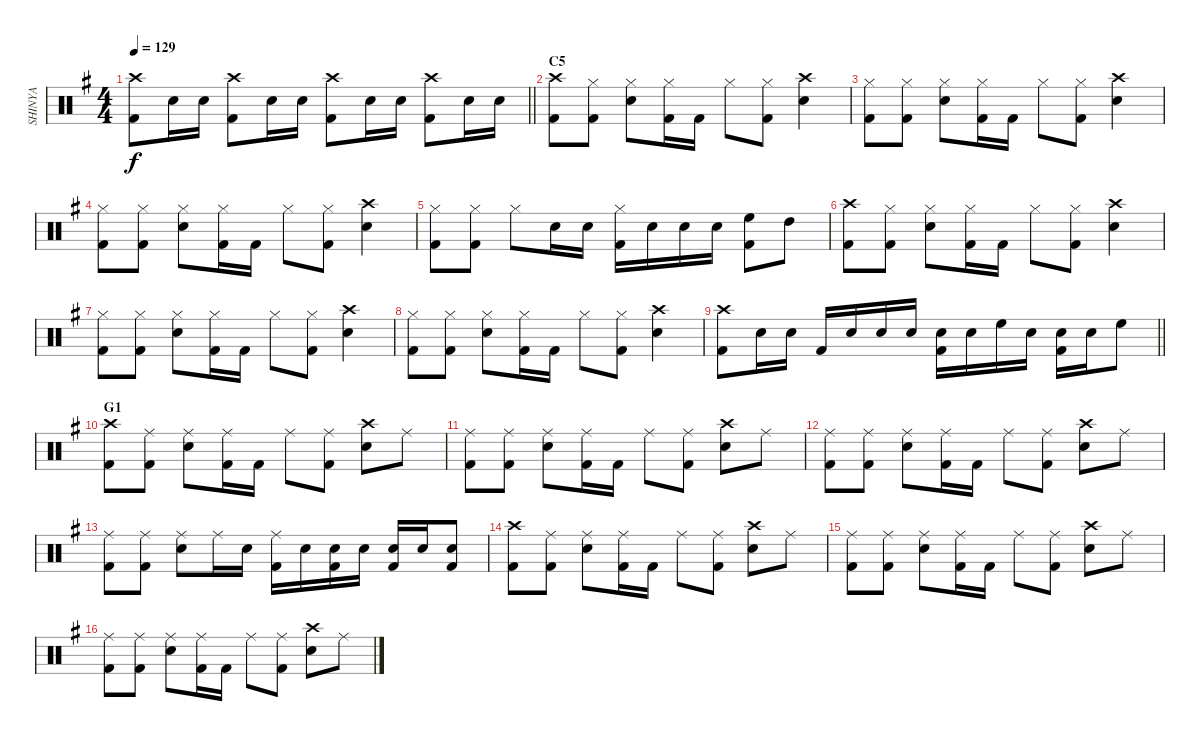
\track ("SHINYA" "SHINYA") {instrument percussion}
\staff {score}
\articulation defaults
\ts (4 4)
\tempo 129
\clef neutral
\barLineRight lightlight
\ks g
("Crash high (hit)" "Kick (hit) 2").8{dy f} "Snare (hit) 2".16 "Snare (hit) 2".16 ("Crash high (hit)" "Kick (hit) 2").8 "Snare (hit) 2".16 "Snare (hit) 2".16 ("Crash high (hit)" "Kick (hit) 2").8 "Snare (hit) 2".16 "Snare (hit) 2".16 ("Crash high (hit)" "Kick (hit) 2").8 "Snare (hit) 2".16 "Snare (hit) 2".16 |
\section ("" "C5")
("Crash high (hit)" "Kick (hit) 2").8 ("Hi-Hat (closed)" "Kick (hit) 2").8 ("Hi-Hat (closed)" "Snare (hit) 2").8 ("Hi-Hat (closed)" "Kick (hit) 2").16 "Kick (hit) 2".16 "Hi-Hat (closed)".8 ("Hi-Hat (closed)" "Kick (hit) 2").8 ("Crash high (hit)" "Snare (hit) 2").4 |
("Hi-Hat (closed)" "Kick (hit) 2").8 ("Hi-Hat (closed)" "Kick (hit) 2").8 ("Hi-Hat (closed)" "Snare (hit) 2").8 ("Hi-Hat (closed)" "Kick (hit) 2").16 "Kick (hit) 2".16 "Hi-Hat (closed)".8 ("Hi-Hat (closed)" "Kick (hit) 2").8 ("Crash high (hit)" "Snare (hit) 2").4 |
("Hi-Hat (closed)" "Kick (hit) 2").8 ("Hi-Hat (closed)" "Kick (hit) 2").8 ("Hi-Hat (closed)" "Snare (hit) 2").8 ("Hi-Hat (closed)" "Kick (hit) 2").16 "Kick (hit) 2".16 "Hi-Hat (closed)".8 ("Hi-Hat (closed)" "Kick (hit) 2").8 ("Crash high (hit)" "Snare (hit) 2").4 |
("Hi-Hat (closed)" "Kick (hit) 2").8 ("Hi-Hat (closed)" "Kick (hit) 2").8 "Hi-Hat (closed)".8 "Snare (hit) 2".16 "Snare (hit) 2".16 ("Hi-Hat (closed)" "Kick (hit) 2").16 "Snare (hit) 2".16 "Snare (hit) 2".16 "Snare (hit) 2".16 ("High Floor Tom (hit)" "Kick (hit) 2").8 "High Tom (hit)".8 |
("Crash high (hit)" "Kick (hit) 2").8 ("Hi-Hat (closed)" "Kick (hit) 2").8 ("Hi-Hat (closed)" "Snare (hit) 2").8 ("Hi-Hat (closed)" "Kick (hit) 2").16 "Kick (hit) 2".16 "Hi-Hat (closed)".8 ("Hi-Hat (closed)" "Kick (hit) 2").8 ("Crash high (hit)" "Snare (hit) 2").4 |
("Hi-Hat (closed)" "Kick (hit) 2").8 ("Hi-Hat (closed)" "Kick (hit) 2").8 ("Hi-Hat (closed)" "Snare (hit) 2").8 ("Hi-Hat (closed)" "Kick (hit) 2").16 "Kick (hit) 2".16 "Hi-Hat (closed)".8 ("Hi-Hat (closed)" "Kick (hit) 2").8 ("Crash high (hit)" "Snare (hit) 2").4 |
("Hi-Hat (closed)" "Kick (hit) 2").8 ("Hi-Hat (closed)" "Kick (hit) 2").8 ("Hi-Hat (closed)" "Snare (hit) 2").8 ("Hi-Hat (closed)" "Kick (hit) 2").16 "Kick (hit) 2".16 "Hi-Hat (closed)".8 ("Hi-Hat (closed)" "Kick (hit) 2").8 ("Crash high (hit)" "Snare (hit) 2").4 |
\barLineRight lightlight
("Crash high (hit)" "Kick (hit) 2").8 "Snare (hit) 2".16 "Snare (hit) 2".16 "Kick (hit) 2".16 "Snare (hit) 2".16 "Snare (hit) 2".16 "Snare (hit) 2".16 ("Snare (hit) 2" "Kick (hit) 2").16 "Snare (hit) 2".16 "High Floor Tom (hit)".16 "Snare (hit) 2".16 ("Snare (hit) 2" "Kick (hit) 2").16 "Snare (hit) 2".16 "High Floor Tom (hit)".8 |
\section ("" "G1")
("Crash high (hit)" "Kick (hit) 2").8 ("Ride (middle)" "Kick (hit) 2").8 ("Ride (middle)" "Snare (hit) 2").8 ("Ride (middle)" "Kick (hit) 2").16 "Kick (hit) 2".16 "Ride (middle)".8 ("Ride (middle)" "Kick (hit) 2").8 ("Crash high (hit)" "Snare (hit) 2").8 "Ride (middle)".8 |
("Ride (middle)" "Kick (hit) 2").8 ("Ride (middle)" "Kick (hit) 2").8 ("Ride (middle)" "Snare (hit) 2").8 ("Ride (middle)" "Kick (hit) 2").16 "Kick (hit) 2".16 "Ride (middle)".8 ("Ride (middle)" "Kick (hit) 2").8 ("Crash high (hit)" "Snare (hit) 2").8 "Ride (middle)".8 |
("Ride (middle)" "Kick (hit) 2").8 ("Ride (middle)" "Kick (hit) 2").8 ("Ride (middle)" "Snare (hit) 2").8 ("Ride (middle)" "Kick (hit) 2").16 "Kick (hit) 2".16 "Ride (middle)".8 ("Ride (middle)" "Kick (hit) 2").8 ("Crash high (hit)" "Snare (hit) 2").8 "Ride (middle)".8 |
("Ride (middle)" "Kick (hit) 2").8 ("Ride (middle)" "Kick (hit) 2").8 ("Ride (middle)" "Snare (hit) 2").8 "Ride (middle)".16 "Snare (hit) 2".16 ("Ride (middle)" "Kick (hit) 2").16 "Snare (hit) 2".16 ("Kick (hit) 2" "Snare (hit) 2").16 "Snare (hit) 2".16 ("Snare (hit) 2" "Kick (hit) 2").16 "Snare (hit) 2".16 ("Snare (hit) 2" "Kick (hit) 2").8 |
("Crash high (hit)" "Kick (hit) 2").8 ("Ride (middle)" "Kick (hit) 2").8 ("Ride (middle)" "Snare (hit) 2").8 ("Ride (middle)" "Kick (hit) 2").16 "Kick (hit) 2".16 "Ride (middle)".8 ("Ride (middle)" "Kick (hit) 2").8 ("Crash high (hit)" "Snare (hit) 2").8 "Ride (middle)".8 |
("Ride (middle)" "Kick (hit) 2").8 ("Ride (middle)" "Kick (hit) 2").8 ("Ride (middle)" "Snare (hit) 2").8 ("Ride (middle)" "Kick (hit) 2").16 "Kick (hit) 2".16 "Ride (middle)".8 ("Ride (middle)" "Kick (hit) 2").8 ("Crash high (hit)" "Snare (hit) 2").8 "Ride (middle)".8 |
("Ride (middle)" "Kick (hit) 2").8 ("Ride (middle)" "Kick (hit) 2").8 ("Ride (middle)" "Snare (hit) 2").8 ("Ride (middle)" "Kick (hit) 2").16 "Kick (hit) 2".16 "Ride (middle)".8 ("Ride (middle)" "Kick (hit) 2").8 ("Crash high (hit)" "Snare (hit) 2").8 "Ride (middle)".8
